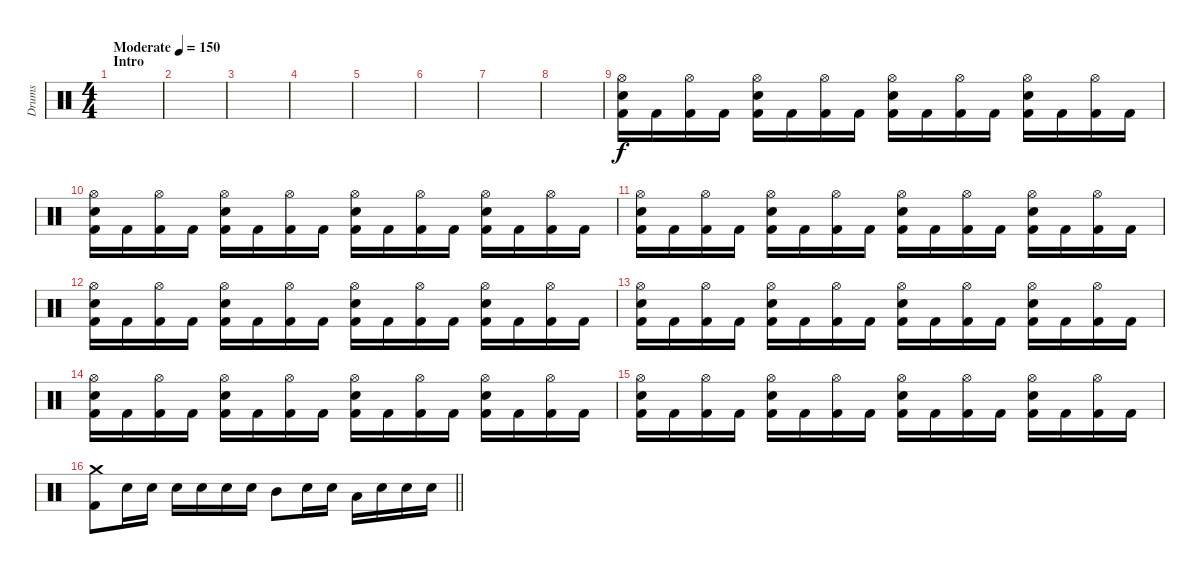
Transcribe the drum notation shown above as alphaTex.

\track ("Drums" "Drums") {instrument percussion}
\staff {score}
\articulation defaults
\ts (4 4)
\section ("" "Intro")
\tempo (150 "Moderate")
\clef neutral
\ks c
|
|
|
|
|
|
|
|
("Hi-Hat (open)" "Snare (hit) 2" "Kick (hit) 2").16 "Kick (hit) 2".16 ("Hi-Hat (open)" "Kick (hit) 2").16 "Kick (hit) 2".16 ("Hi-Hat (open)" "Snare (hit) 2" "Kick (hit) 2").16 "Kick (hit) 2".16 ("Hi-Hat (open)" "Kick (hit) 2").16 "Kick (hit) 2".16 ("Hi-Hat (open)" "Snare (hit) 2" "Kick (hit) 2").16 "Kick (hit) 2".16 ("Hi-Hat (open)" "Kick (hit) 2").16 "Kick (hit) 2".16 ("Hi-Hat (open)" "Snare (hit) 2" "Kick (hit) 2").16 "Kick (hit) 2".16 ("Hi-Hat (open)" "Kick (hit) 2").16 "Kick (hit) 2".16 |
("Hi-Hat (open)" "Snare (hit) 2" "Kick (hit) 2").16 "Kick (hit) 2".16 ("Hi-Hat (open)" "Kick (hit) 2").16 "Kick (hit) 2".16 ("Hi-Hat (open)" "Snare (hit) 2" "Kick (hit) 2").16 "Kick (hit) 2".16 ("Hi-Hat (open)" "Kick (hit) 2").16 "Kick (hit) 2".16 ("Hi-Hat (open)" "Snare (hit) 2" "Kick (hit) 2").16 "Kick (hit) 2".16 ("Hi-Hat (open)" "Kick (hit) 2").16 "Kick (hit) 2".16 ("Hi-Hat (open)" "Snare (hit) 2" "Kick (hit) 2").16 "Kick (hit) 2".16 ("Hi-Hat (open)" "Kick (hit) 2").16 "Kick (hit) 2".16 |
("Hi-Hat (open)" "Snare (hit) 2" "Kick (hit) 2").16 "Kick (hit) 2".16 ("Hi-Hat (open)" "Kick (hit) 2").16 "Kick (hit) 2".16 ("Hi-Hat (open)" "Snare (hit) 2" "Kick (hit) 2").16 "Kick (hit) 2".16 ("Hi-Hat (open)" "Kick (hit) 2").16 "Kick (hit) 2".16 ("Hi-Hat (open)" "Snare (hit) 2" "Kick (hit) 2").16 "Kick (hit) 2".16 ("Hi-Hat (open)" "Kick (hit) 2").16 "Kick (hit) 2".16 ("Hi-Hat (open)" "Snare (hit) 2" "Kick (hit) 2").16 "Kick (hit) 2".16 ("Hi-Hat (open)" "Kick (hit) 2").16 "Kick (hit) 2".16 |
("Hi-Hat (open)" "Snare (hit) 2" "Kick (hit) 2").16 "Kick (hit) 2".16 ("Hi-Hat (open)" "Kick (hit) 2").16 "Kick (hit) 2".16 ("Hi-Hat (open)" "Snare (hit) 2" "Kick (hit) 2").16 "Kick (hit) 2".16 ("Hi-Hat (open)" "Kick (hit) 2").16 "Kick (hit) 2".16 ("Hi-Hat (open)" "Snare (hit) 2" "Kick (hit) 2").16 "Kick (hit) 2".16 ("Hi-Hat (open)" "Kick (hit) 2").16 "Kick (hit) 2".16 ("Hi-Hat (open)" "Snare (hit) 2" "Kick (hit) 2").16 "Kick (hit) 2".16 ("Hi-Hat (open)" "Kick (hit) 2").16 "Kick (hit) 2".16 |
("Hi-Hat (open)" "Snare (hit) 2" "Kick (hit) 2").16 "Kick (hit) 2".16 ("Hi-Hat (open)" "Kick (hit) 2").16 "Kick (hit) 2".16 ("Hi-Hat (open)" "Snare (hit) 2" "Kick (hit) 2").16 "Kick (hit) 2".16 ("Hi-Hat (open)" "Kick (hit) 2").16 "Kick (hit) 2".16 ("Hi-Hat (open)" "Snare (hit) 2" "Kick (hit) 2").16 "Kick (hit) 2".16 ("Hi-Hat (open)" "Kick (hit) 2").16 "Kick (hit) 2".16 ("Hi-Hat (open)" "Snare (hit) 2" "Kick (hit) 2").16 "Kick (hit) 2".16 ("Hi-Hat (open)" "Kick (hit) 2").16 "Kick (hit) 2".16 |
("Hi-Hat (open)" "Snare (hit) 2" "Kick (hit) 2").16 "Kick (hit) 2".16 ("Hi-Hat (open)" "Kick (hit) 2").16 "Kick (hit) 2".16 ("Hi-Hat (open)" "Snare (hit) 2" "Kick (hit) 2").16 "Kick (hit) 2".16 ("Hi-Hat (open)" "Kick (hit) 2").16 "Kick (hit) 2".16 ("Hi-Hat (open)" "Snare (hit) 2" "Kick (hit) 2").16 "Kick (hit) 2".16 ("Hi-Hat (open)" "Kick (hit) 2").16 "Kick (hit) 2".16 ("Hi-Hat (open)" "Snare (hit) 2" "Kick (hit) 2").16 "Kick (hit) 2".16 ("Hi-Hat (open)" "Kick (hit) 2").16 "Kick (hit) 2".16 |
("Hi-Hat (open)" "Snare (hit) 2" "Kick (hit) 2").16 "Kick (hit) 2".16 ("Hi-Hat (open)" "Kick (hit) 2").16 "Kick (hit) 2".16 ("Hi-Hat (open)" "Snare (hit) 2" "Kick (hit) 2").16 "Kick (hit) 2".16 ("Hi-Hat (open)" "Kick (hit) 2").16 "Kick (hit) 2".16 ("Hi-Hat (open)" "Snare (hit) 2" "Kick (hit) 2").16 "Kick (hit) 2".16 ("Hi-Hat (open)" "Kick (hit) 2").16 "Kick (hit) 2".16 ("Hi-Hat (open)" "Snare (hit) 2" "Kick (hit) 2").16 "Kick (hit) 2".16 ("Hi-Hat (open)" "Kick (hit) 2").16 "Kick (hit) 2".16 |
\barLineRight lightlight
("Crash medium (hit)" "Kick (hit) 2").8 "Snare (hit) 2".16 "Snare (hit) 2".16 "Snare (hit) 2".16 "Snare (hit) 2".16 "Snare (hit) 2".16 "Snare (hit) 2".16 "Mid Tom (hit)".8 "Snare (hit) 2".16 "Snare (hit) 2".16 "Low Tom (hit)".16 "Snare (hit) 2".16 "Snare (hit) 2".16 "Snare (hit) 2".16
